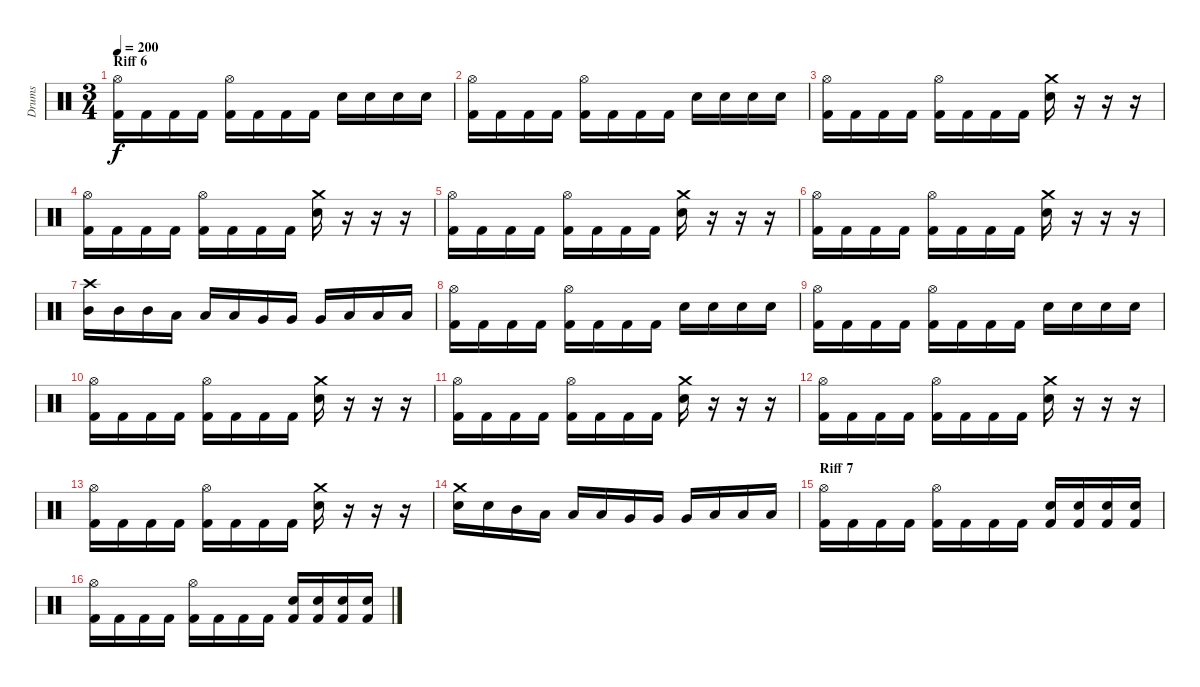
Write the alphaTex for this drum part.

\track ("Drums" "Drums") {instrument percussion}
\staff {score}
\articulation defaults
\ts (3 4)
\section ("" "Riff 6")
\tempo 200
\clef neutral
\ks c
("Hi-Hat (open)" "Kick (hit) 2").16{dy f} "Kick (hit) 2".16 "Kick (hit) 2".16 "Kick (hit) 2".16 ("Hi-Hat (open)" "Kick (hit) 2").16 "Kick (hit) 2".16 "Kick (hit) 2".16 "Kick (hit) 2".16 "Electric Snare (hit)".16 "Electric Snare (hit)".16 "Electric Snare (hit)".16 "Electric Snare (hit)".16 |
("Hi-Hat (open)" "Kick (hit) 2").16 "Kick (hit) 2".16 "Kick (hit) 2".16 "Kick (hit) 2".16 ("Hi-Hat (open)" "Kick (hit) 2").16 "Kick (hit) 2".16 "Kick (hit) 2".16 "Kick (hit) 2".16 "Electric Snare (hit)".16 "Electric Snare (hit)".16 "Electric Snare (hit)".16 "Electric Snare (hit)".16 |
("Hi-Hat (open)" "Kick (hit) 2").16 "Kick (hit) 2".16 "Kick (hit) 2".16 "Kick (hit) 2".16 ("Hi-Hat (open)" "Kick (hit) 2").16 "Kick (hit) 2".16 "Kick (hit) 2".16 "Kick (hit) 2".16 ("Crash medium (hit)" "Electric Snare (hit)").16 r.16 r.16 r.16 |
("Hi-Hat (open)" "Kick (hit) 2").16 "Kick (hit) 2".16 "Kick (hit) 2".16 "Kick (hit) 2".16 ("Hi-Hat (open)" "Kick (hit) 2").16 "Kick (hit) 2".16 "Kick (hit) 2".16 "Kick (hit) 2".16 ("Crash medium (hit)" "Electric Snare (hit)").16 r.16 r.16 r.16 |
("Hi-Hat (open)" "Kick (hit) 2").16 "Kick (hit) 2".16 "Kick (hit) 2".16 "Kick (hit) 2".16 ("Hi-Hat (open)" "Kick (hit) 2").16 "Kick (hit) 2".16 "Kick (hit) 2".16 "Kick (hit) 2".16 ("Crash medium (hit)" "Electric Snare (hit)").16 r.16 r.16 r.16 |
("Hi-Hat (open)" "Kick (hit) 2").16 "Kick (hit) 2".16 "Kick (hit) 2".16 "Kick (hit) 2".16 ("Hi-Hat (open)" "Kick (hit) 2").16 "Kick (hit) 2".16 "Kick (hit) 2".16 "Kick (hit) 2".16 ("Crash medium (hit)" "Electric Snare (hit)").16 r.16 r.16 r.16 |
("Mid Tom (hit)" "Crash high (hit)").16 "Mid Tom (hit)".16 "Mid Tom (hit)".16 "Low Tom (hit)".16 "Low Tom (hit)".16 "Low Tom (hit)".16 "Very Low Tom (hit)".16 "Very Low Tom (hit)".16 "Very Low Tom (hit)".16 "Low Floor Tom (hit)".16 "Low Floor Tom (hit)".16 "Low Floor Tom (hit)".16 |
("Hi-Hat (open)" "Kick (hit) 2").16 "Kick (hit) 2".16 "Kick (hit) 2".16 "Kick (hit) 2".16 ("Hi-Hat (open)" "Kick (hit) 2").16 "Kick (hit) 2".16 "Kick (hit) 2".16 "Kick (hit) 2".16 "Electric Snare (hit)".16 "Electric Snare (hit)".16 "Electric Snare (hit)".16 "Electric Snare (hit)".16 |
("Hi-Hat (open)" "Kick (hit) 2").16 "Kick (hit) 2".16 "Kick (hit) 2".16 "Kick (hit) 2".16 ("Hi-Hat (open)" "Kick (hit) 2").16 "Kick (hit) 2".16 "Kick (hit) 2".16 "Kick (hit) 2".16 "Electric Snare (hit)".16 "Electric Snare (hit)".16 "Electric Snare (hit)".16 "Electric Snare (hit)".16 |
("Hi-Hat (open)" "Kick (hit) 2").16 "Kick (hit) 2".16 "Kick (hit) 2".16 "Kick (hit) 2".16 ("Hi-Hat (open)" "Kick (hit) 2").16 "Kick (hit) 2".16 "Kick (hit) 2".16 "Kick (hit) 2".16 ("Crash medium (hit)" "Electric Snare (hit)").16 r.16 r.16 r.16 |
("Hi-Hat (open)" "Kick (hit) 2").16 "Kick (hit) 2".16 "Kick (hit) 2".16 "Kick (hit) 2".16 ("Hi-Hat (open)" "Kick (hit) 2").16 "Kick (hit) 2".16 "Kick (hit) 2".16 "Kick (hit) 2".16 ("Crash medium (hit)" "Electric Snare (hit)").16 r.16 r.16 r.16 |
("Hi-Hat (open)" "Kick (hit) 2").16 "Kick (hit) 2".16 "Kick (hit) 2".16 "Kick (hit) 2".16 ("Hi-Hat (open)" "Kick (hit) 2").16 "Kick (hit) 2".16 "Kick (hit) 2".16 "Kick (hit) 2".16 ("Crash medium (hit)" "Electric Snare (hit)").16 r.16 r.16 r.16 |
("Hi-Hat (open)" "Kick (hit) 2").16 "Kick (hit) 2".16 "Kick (hit) 2".16 "Kick (hit) 2".16 ("Hi-Hat (open)" "Kick (hit) 2").16 "Kick (hit) 2".16 "Kick (hit) 2".16 "Kick (hit) 2".16 ("Crash medium (hit)" "Electric Snare (hit)").16 r.16 r.16 r.16 |
("Crash medium (hit)" "Electric Snare (hit)").16 "Electric Snare (hit)".16 "Mid Tom (hit)".16 "Low Tom (hit)".16 "Low Tom (hit)".16 "Low Tom (hit)".16 "Very Low Tom (hit)".16 "Very Low Tom (hit)".16 "Very Low Tom (hit)".16 "Low Floor Tom (hit)".16 "Low Floor Tom (hit)".16 "Low Floor Tom (hit)".16 |
\section ("" "Riff 7")
("Hi-Hat (open)" "Kick (hit) 2").16 "Kick (hit) 2".16 "Kick (hit) 2".16 "Kick (hit) 2".16 ("Hi-Hat (open)" "Kick (hit) 2").16 "Kick (hit) 2".16 "Kick (hit) 2".16 "Kick (hit) 2".16 ("Electric Snare (hit)" "Kick (hit) 2").16 ("Electric Snare (hit)" "Kick (hit) 2").16 ("Electric Snare (hit)" "Kick (hit) 2").16 ("Electric Snare (hit)" "Kick (hit) 2").16 |
("Hi-Hat (open)" "Kick (hit) 2").16 "Kick (hit) 2".16 "Kick (hit) 2".16 "Kick (hit) 2".16 ("Hi-Hat (open)" "Kick (hit) 2").16 "Kick (hit) 2".16 "Kick (hit) 2".16 "Kick (hit) 2".16 ("Electric Snare (hit)" "Kick (hit) 2").16 ("Electric Snare (hit)" "Kick (hit) 2").16 ("Electric Snare (hit)" "Kick (hit) 2").16 ("Electric Snare (hit)" "Kick (hit) 2").16
